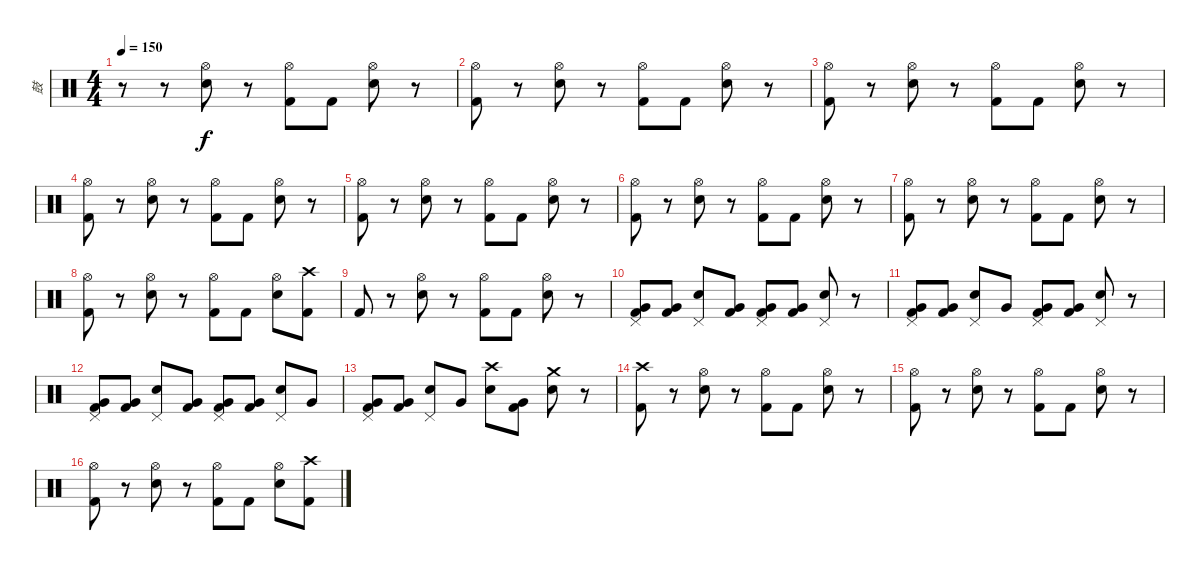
\track ("鼓" "鼓") {instrument percussion}
\staff {score}
\articulation defaults
\ts (4 4)
\tempo 150
\clef neutral
\ks c
r.8{dy f} r.8 ("Hi-Hat (open)" "Electric Snare (hit)").8 r.8 ("Hi-Hat (open)" "Kick (hit) 2").8 "Kick (hit) 2".8 ("Hi-Hat (open)" "Electric Snare (hit)").8 r.8 |
("Hi-Hat (open)" "Kick (hit) 2").8 r.8 ("Hi-Hat (open)" "Electric Snare (hit)").8 r.8 ("Hi-Hat (open)" "Kick (hit) 2").8 "Kick (hit) 2".8 ("Hi-Hat (open)" "Electric Snare (hit)").8 r.8 |
("Hi-Hat (open)" "Kick (hit) 2").8 r.8 ("Hi-Hat (open)" "Electric Snare (hit)").8 r.8 ("Hi-Hat (open)" "Kick (hit) 2").8 "Kick (hit) 2".8 ("Hi-Hat (open)" "Electric Snare (hit)").8 r.8 |
("Hi-Hat (open)" "Kick (hit) 2").8 r.8 ("Hi-Hat (open)" "Electric Snare (hit)").8 r.8 ("Hi-Hat (open)" "Kick (hit) 2").8 "Kick (hit) 2".8 ("Hi-Hat (open)" "Electric Snare (hit)").8 r.8 |
("Hi-Hat (open)" "Kick (hit) 2").8 r.8 ("Hi-Hat (open)" "Electric Snare (hit)").8 r.8 ("Hi-Hat (open)" "Kick (hit) 2").8 "Kick (hit) 2".8 ("Hi-Hat (open)" "Electric Snare (hit)").8 r.8 |
("Hi-Hat (open)" "Kick (hit) 2").8 r.8 ("Hi-Hat (open)" "Electric Snare (hit)").8 r.8 ("Hi-Hat (open)" "Kick (hit) 2").8 "Kick (hit) 2".8 ("Hi-Hat (open)" "Electric Snare (hit)").8 r.8 |
("Hi-Hat (open)" "Kick (hit) 2").8 r.8 ("Hi-Hat (open)" "Electric Snare (hit)").8 r.8 ("Hi-Hat (open)" "Kick (hit) 2").8 "Kick (hit) 2".8 ("Hi-Hat (open)" "Electric Snare (hit)").8 r.8 |
("Hi-Hat (open)" "Kick (hit) 2").8 r.8 ("Hi-Hat (open)" "Electric Snare (hit)").8 r.8 ("Hi-Hat (open)" "Kick (hit) 2").8 "Kick (hit) 2".8 ("Hi-Hat (open)" "Electric Snare (hit)").8 ("Crash high (hit)" "Kick (hit) 2").8 |
"Kick (hit) 2".8 r.8 ("Hi-Hat (open)" "Electric Snare (hit)").8 r.8 ("Hi-Hat (open)" "Kick (hit) 2").8 "Kick (hit) 2".8 ("Hi-Hat (open)" "Electric Snare (hit)").8 r.8 |
("Pedal Hi-Hat (hit)" "Very Low Tom (hit)" "Kick (hit) 2").8 ("Very Low Tom (hit)" "Kick (hit) 2").8 ("Pedal Hi-Hat (hit)" "Electric Snare (hit)").8 ("Very Low Tom (hit)" "Kick (hit) 2").8 ("Pedal Hi-Hat (hit)" "Very Low Tom (hit)" "Kick (hit) 2").8 ("Very Low Tom (hit)" "Kick (hit) 2").8 ("Pedal Hi-Hat (hit)" "Electric Snare (hit)").8 r.8 |
("Pedal Hi-Hat (hit)" "Very Low Tom (hit)" "Kick (hit) 2").8 ("Very Low Tom (hit)" "Kick (hit) 2").8 ("Pedal Hi-Hat (hit)" "Electric Snare (hit)").8 "Very Low Tom (hit)".8 ("Pedal Hi-Hat (hit)" "Very Low Tom (hit)" "Kick (hit) 2").8 ("Very Low Tom (hit)" "Kick (hit) 2").8 ("Pedal Hi-Hat (hit)" "Electric Snare (hit)").8 r.8 |
("Pedal Hi-Hat (hit)" "Very Low Tom (hit)" "Kick (hit) 2").8 ("Very Low Tom (hit)" "Kick (hit) 2").8 ("Pedal Hi-Hat (hit)" "Electric Snare (hit)").8 ("Very Low Tom (hit)" "Kick (hit) 2").8 ("Pedal Hi-Hat (hit)" "Very Low Tom (hit)" "Kick (hit) 2").8 ("Very Low Tom (hit)" "Kick (hit) 2").8 ("Pedal Hi-Hat (hit)" "Electric Snare (hit)").8 "Very Low Tom (hit)".8 |
("Pedal Hi-Hat (hit)" "Very Low Tom (hit)" "Kick (hit) 2").8 ("Very Low Tom (hit)" "Kick (hit) 2").8 ("Pedal Hi-Hat (hit)" "Electric Snare (hit)").8 "Very Low Tom (hit)".8 ("Crash high (hit)" "Electric Snare (hit)").8 ("Very Low Tom (hit)" "Kick (hit) 2").8 ("Crash medium (hit)" "Electric Snare (hit)").8 r.8 |
("Crash high (hit)" "Kick (hit) 2").8 r.8 ("Hi-Hat (open)" "Electric Snare (hit)").8 r.8 ("Hi-Hat (open)" "Kick (hit) 2").8 "Kick (hit) 2".8 ("Hi-Hat (open)" "Electric Snare (hit)").8 r.8 |
("Hi-Hat (open)" "Kick (hit) 2").8 r.8 ("Hi-Hat (open)" "Electric Snare (hit)").8 r.8 ("Hi-Hat (open)" "Kick (hit) 2").8 "Kick (hit) 2".8 ("Hi-Hat (open)" "Electric Snare (hit)").8 r.8 |
("Hi-Hat (open)" "Kick (hit) 2").8 r.8 ("Hi-Hat (open)" "Electric Snare (hit)").8 r.8 ("Hi-Hat (open)" "Kick (hit) 2").8 "Kick (hit) 2".8 ("Hi-Hat (open)" "Electric Snare (hit)").8 ("Crash high (hit)" "Kick (hit) 2").8
